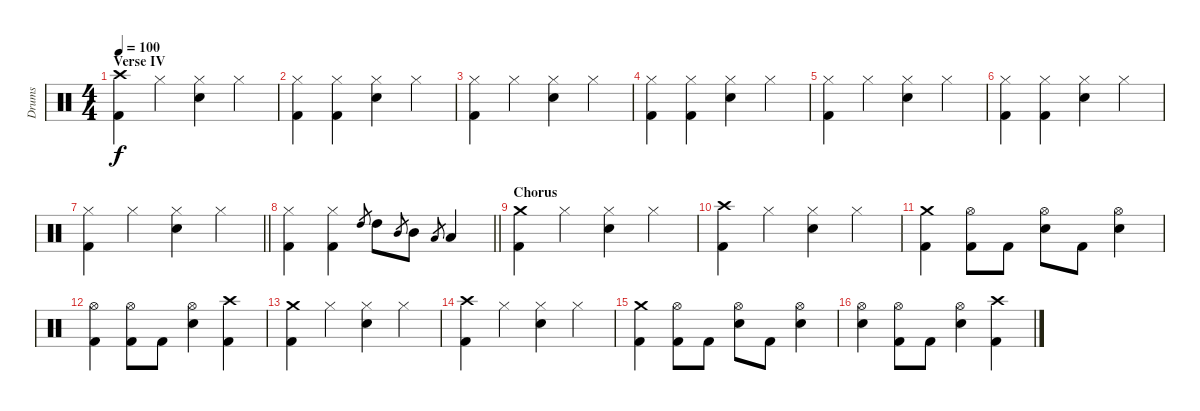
\track ("Drums" "Drums") {instrument percussion}
\staff {score}
\articulation defaults
\ts (4 4)
\section ("" "Verse IV")
\tempo 100
\clef neutral
\ks c
("Crash high (hit)" "Kick (hit) 2").4{dy f} "Hi-Hat (closed)".4 ("Snare (hit) 2" "Hi-Hat (closed)").4 "Hi-Hat (closed)".4 |
("Hi-Hat (closed)" "Kick (hit) 2").4 ("Hi-Hat (closed)" "Kick (hit) 2").4 ("Snare (hit) 2" "Hi-Hat (closed)").4 "Hi-Hat (closed)".4 |
("Hi-Hat (closed)" "Kick (hit) 2").4 "Hi-Hat (closed)".4 ("Snare (hit) 2" "Hi-Hat (closed)").4 "Hi-Hat (closed)".4 |
("Hi-Hat (closed)" "Kick (hit) 2").4 ("Hi-Hat (closed)" "Kick (hit) 2").4 ("Snare (hit) 2" "Hi-Hat (closed)").4 "Hi-Hat (closed)".4 |
("Hi-Hat (closed)" "Kick (hit) 2").4 "Hi-Hat (closed)".4 ("Snare (hit) 2" "Hi-Hat (closed)").4 "Hi-Hat (closed)".4 |
("Hi-Hat (closed)" "Kick (hit) 2").4 ("Hi-Hat (closed)" "Kick (hit) 2").4 ("Snare (hit) 2" "Hi-Hat (closed)").4 "Hi-Hat (closed)".4 |
\barLineRight lightlight
("Hi-Hat (closed)" "Kick (hit) 2").4 "Hi-Hat (closed)".4 ("Snare (hit) 2" "Hi-Hat (closed)").4 "Hi-Hat (closed)".4 |
\section ("" "")
\barLineRight lightlight
("Hi-Hat (closed)" "Kick (hit) 2").4 ("Hi-Hat (closed)" "Kick (hit) 2").4 "High Tom (hit)".8{gr} "High Tom (hit)".8 "Mid Tom (hit)".8{gr} "Mid Tom (hit)".8 "Low Tom (hit)".8{gr} "Low Tom (hit)".4 |
\section ("" "Chorus")
("Crash medium (hit)" "Kick (hit) 2").4 "Hi-Hat (closed)".4 ("Snare (hit) 2" "Hi-Hat (closed)").4 "Hi-Hat (closed)".4 |
("Crash high (hit)" "Kick (hit) 2").4 "Hi-Hat (closed)".4 ("Snare (hit) 2" "Hi-Hat (closed)").4 "Hi-Hat (closed)".4 |
("Crash medium (hit)" "Kick (hit) 2").4 ("Hi-Hat (open)" "Kick (hit) 2").8 "Kick (hit) 2".8 ("Snare (hit) 2" "Hi-Hat (open)").8 "Kick (hit) 2".8 ("Snare (hit) 2" "Hi-Hat (open)").4 |
("Hi-Hat (open)" "Kick (hit) 2").4 ("Hi-Hat (open)" "Kick (hit) 2").8 "Kick (hit) 2".8 ("Snare (hit) 2" "Hi-Hat (open)").4 ("Crash high (hit)" "Kick (hit) 2").4 |
("Crash medium (hit)" "Kick (hit) 2").4 "Hi-Hat (closed)".4 ("Snare (hit) 2" "Hi-Hat (closed)").4 "Hi-Hat (closed)".4 |
("Crash high (hit)" "Kick (hit) 2").4 "Hi-Hat (closed)".4 ("Snare (hit) 2" "Hi-Hat (closed)").4 "Hi-Hat (closed)".4 |
("Crash medium (hit)" "Kick (hit) 2").4 ("Hi-Hat (open)" "Kick (hit) 2").8 "Kick (hit) 2".8 ("Snare (hit) 2" "Hi-Hat (open)").8 "Kick (hit) 2".8 ("Snare (hit) 2" "Hi-Hat (open)").4 |
("Snare (hit) 2" "Hi-Hat (open)").4 ("Hi-Hat (open)" "Kick (hit) 2").8 "Kick (hit) 2".8 ("Snare (hit) 2" "Hi-Hat (open)").4 ("Crash high (hit)" "Kick (hit) 2").4
